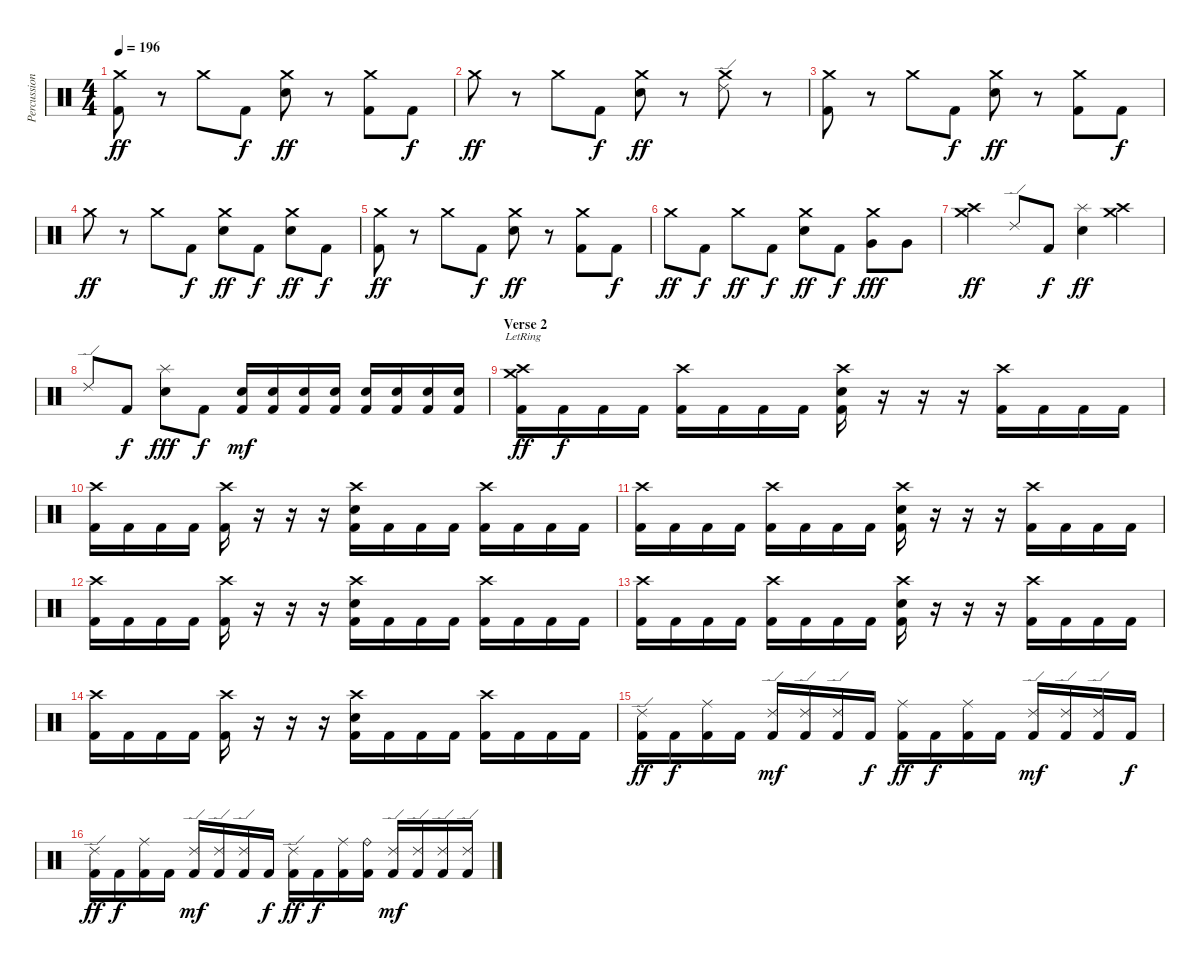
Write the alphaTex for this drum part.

\track ("Percussions" "Percussion") {instrument percussion}
\staff {score}
\articulation defaults
\ts (4 4)
\tempo 196
\clef neutral
\ks c
("Crash medium (hit)" "Kick (hit) 2").8{dy ff} r.8 "Crash medium (hit)".8 "Kick (hit) 2".8{dy f} ("Crash medium (hit)" "Electric Snare (hit)").8{dy ff} r.8 ("Crash medium (hit)" "Kick (hit) 2").8 "Kick (hit) 2".8{dy f} |
"Crash medium (hit)".8{dy ff} r.8 "Crash medium (hit)".8 "Kick (hit) 2".8{dy f} ("Crash medium (hit)" "Electric Snare (hit)").8{dy ff} r.8 ("Ride (edge) 2" "Crash medium (hit)").8 r.8 |
("Crash medium (hit)" "Kick (hit) 2").8 r.8 "Crash medium (hit)".8 "Kick (hit) 2".8{dy f} ("Crash medium (hit)" "Electric Snare (hit)").8{dy ff} r.8 ("Crash medium (hit)" "Kick (hit) 2").8 "Kick (hit) 2".8{dy f} |
"Crash medium (hit)".8{dy ff} r.8 "Crash medium (hit)".8 "Kick (hit) 2".8{dy f} ("Crash medium (hit)" "Electric Snare (hit)").8{dy ff} "Kick (hit) 2".8{dy f} ("Crash medium (hit)" "Electric Snare (hit)").8{dy ff} "Kick (hit) 2".8{dy f} |
("Crash medium (hit)" "Kick (hit) 2").8{dy ff} r.8 "Crash medium (hit)".8 "Kick (hit) 2".8{dy f} ("Crash medium (hit)" "Electric Snare (hit)").8{dy ff} r.8 ("Crash medium (hit)" "Kick (hit) 2").8 "Kick (hit) 2".8{dy f} |
"Crash medium (hit)".8{dy ff} "Kick (hit) 2".8{dy f} "Crash medium (hit)".8{dy ff} "Kick (hit) 2".8{dy f} ("Crash medium (hit)" "Electric Snare (hit)").8{dy ff} "Kick (hit) 2".8{dy f} ("Crash medium (hit)" "Very Low Tom (hit)").8{dy fff} "Very Low Tom (hit)".8 |
("Crash medium (hit)" "Crash high (hit)").4{dy ff} "Ride (edge) 2".8 "Kick (hit) 2".8{dy f} ("Splash (hit)" "Electric Snare (hit)").4{dy ff} ("Crash medium (hit)" "Crash high (hit)").4 |
"Ride (edge) 2".8 "Kick (hit) 2".8{dy f} ("Splash (hit)" "Electric Snare (hit)").8{dy fff} "Kick (hit) 2".8{dy f} ("Electric Snare (hit)" "Kick (hit) 2").16{dy mf} ("Electric Snare (hit)" "Kick (hit) 2").16 ("Electric Snare (hit)" "Kick (hit) 2").16 ("Electric Snare (hit)" "Kick (hit) 2").16 ("Electric Snare (hit)" "Kick (hit) 2").16 ("Electric Snare (hit)" "Kick (hit) 2").16 ("Electric Snare (hit)" "Kick (hit) 2").16 ("Electric Snare (hit)" "Kick (hit) 2").16 |
\section ("" "Verse 2")
("Crash medium (hit)"{lr} "Crash high (hit)" "Kick (hit) 2").16{dy ff} "Kick (hit) 2".16{dy f} "Kick (hit) 2".16 "Kick (hit) 2".16 ("Crash high (hit)" "Kick (hit) 2").16 "Kick (hit) 2".16 "Kick (hit) 2".16 "Kick (hit) 2".16 ("Crash high (hit)" "Electric Snare (hit)" "Kick (hit) 2").16 r.16 r.16 r.16 ("Crash high (hit)" "Kick (hit) 2").16 "Kick (hit) 2".16 "Kick (hit) 2".16 "Kick (hit) 2".16 |
("Crash high (hit)" "Kick (hit) 2").16 "Kick (hit) 2".16 "Kick (hit) 2".16 "Kick (hit) 2".16 ("Crash high (hit)" "Kick (hit) 2").16 r.16 r.16 r.16 ("Crash high (hit)" "Electric Snare (hit)" "Kick (hit) 2").16 "Kick (hit) 2".16 "Kick (hit) 2".16 "Kick (hit) 2".16 ("Crash high (hit)" "Kick (hit) 2").16 "Kick (hit) 2".16 "Kick (hit) 2".16 "Kick (hit) 2".16 |
("Crash high (hit)" "Kick (hit) 2").16 "Kick (hit) 2".16 "Kick (hit) 2".16 "Kick (hit) 2".16 ("Crash high (hit)" "Kick (hit) 2").16 "Kick (hit) 2".16 "Kick (hit) 2".16 "Kick (hit) 2".16 ("Crash high (hit)" "Electric Snare (hit)" "Kick (hit) 2").16 r.16 r.16 r.16 ("Crash high (hit)" "Kick (hit) 2").16 "Kick (hit) 2".16 "Kick (hit) 2".16 "Kick (hit) 2".16 |
("Crash high (hit)" "Kick (hit) 2").16 "Kick (hit) 2".16 "Kick (hit) 2".16 "Kick (hit) 2".16 ("Crash high (hit)" "Kick (hit) 2").16 r.16 r.16 r.16 ("Crash high (hit)" "Electric Snare (hit)" "Kick (hit) 2").16 "Kick (hit) 2".16 "Kick (hit) 2".16 "Kick (hit) 2".16 ("Crash high (hit)" "Kick (hit) 2").16 "Kick (hit) 2".16 "Kick (hit) 2".16 "Kick (hit) 2".16 |
("Crash high (hit)" "Kick (hit) 2").16 "Kick (hit) 2".16 "Kick (hit) 2".16 "Kick (hit) 2".16 ("Crash high (hit)" "Kick (hit) 2").16 "Kick (hit) 2".16 "Kick (hit) 2".16 "Kick (hit) 2".16 ("Crash high (hit)" "Electric Snare (hit)" "Kick (hit) 2").16 r.16 r.16 r.16 ("Crash high (hit)" "Kick (hit) 2").16 "Kick (hit) 2".16 "Kick (hit) 2".16 "Kick (hit) 2".16 |
("Crash high (hit)" "Kick (hit) 2").16 "Kick (hit) 2".16 "Kick (hit) 2".16 "Kick (hit) 2".16 ("Crash high (hit)" "Kick (hit) 2").16 r.16 r.16 r.16 ("Crash high (hit)" "Electric Snare (hit)" "Kick (hit) 2").16 "Kick (hit) 2".16 "Kick (hit) 2".16 "Kick (hit) 2".16 ("Crash high (hit)" "Kick (hit) 2").16 "Kick (hit) 2".16 "Kick (hit) 2".16 "Kick (hit) 2".16 |
("Ride (edge) 2" "Kick (hit) 2").16{dy ff} "Kick (hit) 2".16{dy f} ("Ride (middle)" "Kick (hit) 2").16 "Kick (hit) 2".16 ("Ride (edge) 2" "Kick (hit) 2").16{dy mf} ("Ride (edge) 2" "Kick (hit) 2").16 ("Ride (edge) 2" "Kick (hit) 2").16 "Kick (hit) 2".16{dy f} ("Ride (middle)" "Kick (hit) 2").16{dy ff} "Kick (hit) 2".16{dy f} ("Ride (middle)" "Kick (hit) 2").16 "Kick (hit) 2".16 ("Ride (edge) 2" "Kick (hit) 2").16{dy mf} ("Ride (edge) 2" "Kick (hit) 2").16 ("Ride (edge) 2" "Kick (hit) 2").16 "Kick (hit) 2".16{dy f} |
("Ride (edge) 2" "Kick (hit) 2").16{dy ff} "Kick (hit) 2".16{dy f} ("Ride (middle)" "Kick (hit) 2").16 "Kick (hit) 2".16 ("Ride (edge) 2" "Kick (hit) 2").16{dy mf} ("Ride (edge) 2" "Kick (hit) 2").16 ("Ride (edge) 2" "Kick (hit) 2").16 "Kick (hit) 2".16{dy f} ("Ride (edge) 2" "Kick (hit) 2").16{dy ff} "Kick (hit) 2".16{dy f} ("Ride (middle)" "Kick (hit) 2").16 ("Ride (bell)" "Kick (hit) 2").16 ("Ride (edge) 2" "Kick (hit) 2").16{dy mf} ("Ride (edge) 2" "Kick (hit) 2").16 ("Ride (edge) 2" "Kick (hit) 2").16 ("Ride (edge) 2" "Kick (hit) 2").16
